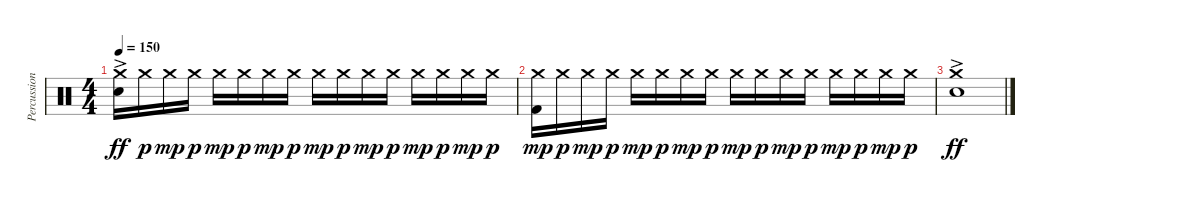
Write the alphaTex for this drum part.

\track ("Percussion" "Percussion") {instrument percussion}
\staff {score}
\articulation defaults
\ts (4 4)
\tempo 150
\clef neutral
\ks c
("Crash medium (hit)" "Electric Snare (hit)"{ac}).16{dy ff} "Crash medium (hit)".16{dy p} "Crash medium (hit)".16{dy mp} "Crash medium (hit)".16{dy p} "Crash medium (hit)".16{dy mp} "Crash medium (hit)".16{dy p} "Crash medium (hit)".16{dy mp} "Crash medium (hit)".16{dy p} "Crash medium (hit)".16{dy mp} "Crash medium (hit)".16{dy p} "Crash medium (hit)".16{dy mp} "Crash medium (hit)".16{dy p} "Crash medium (hit)".16{dy mp} "Crash medium (hit)".16{dy p} "Crash medium (hit)".16{dy mp} "Crash medium (hit)".16{dy p} |
("Crash medium (hit)" "Kick (hit) 2").16{dy mp} "Crash medium (hit)".16{dy p} "Crash medium (hit)".16{dy mp} "Crash medium (hit)".16{dy p} "Crash medium (hit)".16{dy mp} "Crash medium (hit)".16{dy p} "Crash medium (hit)".16{dy mp} "Crash medium (hit)".16{dy p} "Crash medium (hit)".16{dy mp} "Crash medium (hit)".16{dy p} "Crash medium (hit)".16{dy mp} "Crash medium (hit)".16{dy p} "Crash medium (hit)".16{dy mp} "Crash medium (hit)".16{dy p} "Crash medium (hit)".16{dy mp} "Crash medium (hit)".16{dy p} |
("Crash medium (hit)" "Electric Snare (hit)"{ac}).1{dy ff}
